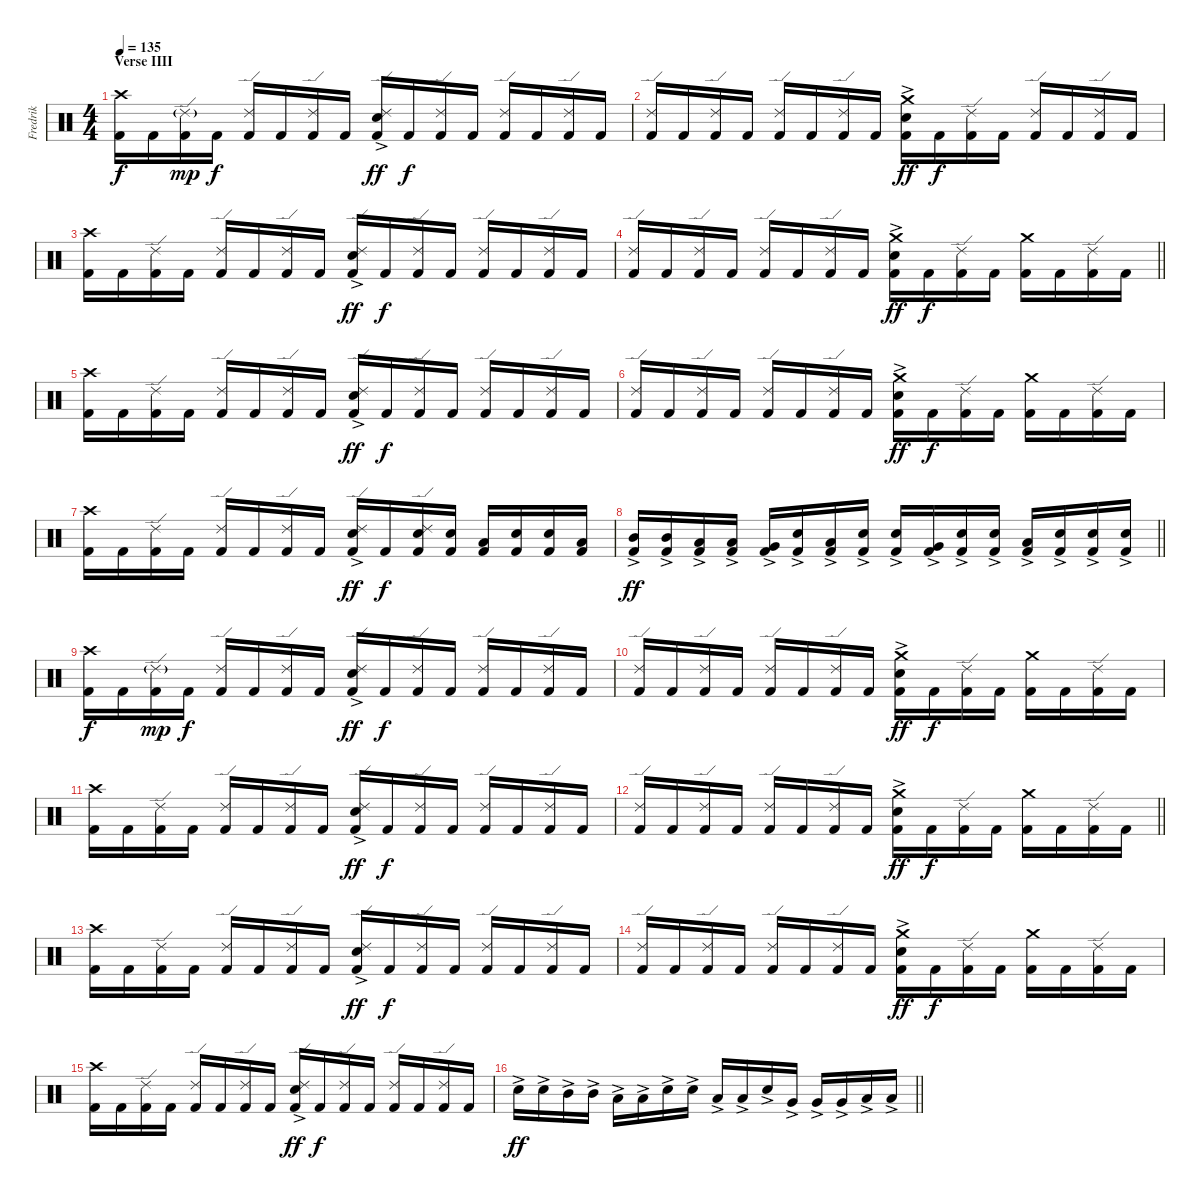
\track ("Fredrik" "Fredrik") {instrument percussion}
\staff {score}
\articulation defaults
\ts (4 4)
\section ("" "Verse IIII")
\tempo 135
\clef neutral
\ks c
("Kick (hit) 2" "Crash high (hit)").16{dy f} "Kick (hit) 2".16 ("Kick (hit) 2" "Ride (edge) 2"{g}).16{dy mp} "Kick (hit) 2".16{dy f} ("Kick (hit) 2" "Ride (edge) 2").16 "Kick (hit) 2".16 ("Kick (hit) 2" "Ride (edge) 2").16 "Kick (hit) 2".16 ("Kick (hit) 2" "Snare (hit) 2"{ac} "Ride (edge) 2").16{dy ff} "Kick (hit) 2".16{dy f} ("Kick (hit) 2" "Ride (edge) 2").16 "Kick (hit) 2".16 ("Kick (hit) 2" "Ride (edge) 2").16 "Kick (hit) 2".16 ("Kick (hit) 2" "Ride (edge) 2").16 "Kick (hit) 2".16 |
("Kick (hit) 2" "Ride (edge) 2").16 "Kick (hit) 2".16 ("Kick (hit) 2" "Ride (edge) 2").16 "Kick (hit) 2".16 ("Kick (hit) 2" "Ride (edge) 2").16 "Kick (hit) 2".16 ("Kick (hit) 2" "Ride (edge) 2").16 "Kick (hit) 2".16 ("Kick (hit) 2" "Snare (hit) 2"{ac} "Crash medium (hit)").16{dy ff} "Kick (hit) 2".16{dy f} ("Kick (hit) 2" "Ride (edge) 2").16 "Kick (hit) 2".16 ("Kick (hit) 2" "Ride (edge) 2").16 "Kick (hit) 2".16 ("Kick (hit) 2" "Ride (edge) 2").16 "Kick (hit) 2".16 |
("Kick (hit) 2" "Crash high (hit)").16 "Kick (hit) 2".16 ("Kick (hit) 2" "Ride (edge) 2").16 "Kick (hit) 2".16 ("Kick (hit) 2" "Ride (edge) 2").16 "Kick (hit) 2".16 ("Kick (hit) 2" "Ride (edge) 2").16 "Kick (hit) 2".16 ("Kick (hit) 2" "Snare (hit) 2"{ac} "Ride (edge) 2").16{dy ff} "Kick (hit) 2".16{dy f} ("Kick (hit) 2" "Ride (edge) 2").16 "Kick (hit) 2".16 ("Kick (hit) 2" "Ride (edge) 2").16 "Kick (hit) 2".16 ("Kick (hit) 2" "Ride (edge) 2").16 "Kick (hit) 2".16 |
\barLineRight lightlight
("Kick (hit) 2" "Ride (edge) 2").16 "Kick (hit) 2".16 ("Kick (hit) 2" "Ride (edge) 2").16 "Kick (hit) 2".16 ("Kick (hit) 2" "Ride (edge) 2").16 "Kick (hit) 2".16 ("Kick (hit) 2" "Ride (edge) 2").16 "Kick (hit) 2".16 ("Kick (hit) 2" "Snare (hit) 2"{ac} "Crash medium (hit)").16{dy ff} "Kick (hit) 2".16{dy f} ("Kick (hit) 2" "Ride (edge) 2").16 "Kick (hit) 2".16 ("Kick (hit) 2" "Crash medium (hit)").16 "Kick (hit) 2".16 ("Kick (hit) 2" "Ride (edge) 2").16 "Kick (hit) 2".16 |
\section ("" "")
("Kick (hit) 2" "Crash high (hit)").16 "Kick (hit) 2".16 ("Kick (hit) 2" "Ride (edge) 2").16 "Kick (hit) 2".16 ("Kick (hit) 2" "Ride (edge) 2").16 "Kick (hit) 2".16 ("Kick (hit) 2" "Ride (edge) 2").16 "Kick (hit) 2".16 ("Kick (hit) 2" "Snare (hit) 2"{ac} "Ride (edge) 2").16{dy ff} "Kick (hit) 2".16{dy f} ("Kick (hit) 2" "Ride (edge) 2").16 "Kick (hit) 2".16 ("Kick (hit) 2" "Ride (edge) 2").16 "Kick (hit) 2".16 ("Kick (hit) 2" "Ride (edge) 2").16 "Kick (hit) 2".16 |
("Kick (hit) 2" "Ride (edge) 2").16 "Kick (hit) 2".16 ("Kick (hit) 2" "Ride (edge) 2").16 "Kick (hit) 2".16 ("Kick (hit) 2" "Ride (edge) 2").16 "Kick (hit) 2".16 ("Kick (hit) 2" "Ride (edge) 2").16 "Kick (hit) 2".16 ("Kick (hit) 2" "Snare (hit) 2"{ac} "Crash medium (hit)").16{dy ff} "Kick (hit) 2".16{dy f} ("Kick (hit) 2" "Ride (edge) 2").16 "Kick (hit) 2".16 ("Kick (hit) 2" "Crash medium (hit)").16 "Kick (hit) 2".16 ("Kick (hit) 2" "Ride (edge) 2").16 "Kick (hit) 2".16 |
("Kick (hit) 2" "Crash high (hit)").16 "Kick (hit) 2".16 ("Kick (hit) 2" "Ride (edge) 2").16 "Kick (hit) 2".16 ("Kick (hit) 2" "Ride (edge) 2").16 "Kick (hit) 2".16 ("Kick (hit) 2" "Ride (edge) 2").16 "Kick (hit) 2".16 ("Kick (hit) 2" "Snare (hit) 2"{ac} "Ride (edge) 2").16{dy ff} "Kick (hit) 2".16{dy f} ("Kick (hit) 2" "Snare (hit) 2" "Ride (edge) 2").16 ("Kick (hit) 2" "Snare (hit) 2").16 ("Kick (hit) 2" "Low Tom (hit)").16 ("Kick (hit) 2" "Snare (hit) 2").16 ("Kick (hit) 2" "Snare (hit) 2").16 ("Kick (hit) 2" "Low Tom (hit)").16 |
\barLineRight lightlight
("Kick (hit) 2" "Mid Tom (hit)"{ac}).16{dy ff} ("Kick (hit) 2" "Mid Tom (hit)"{ac}).16 ("Kick (hit) 2" "Low Tom (hit)"{ac}).16 ("Kick (hit) 2" "Low Tom (hit)"{ac}).16 ("Kick (hit) 2" "Very Low Tom (hit)"{ac}).16 ("Kick (hit) 2" "Snare (hit) 2"{ac}).16 ("Kick (hit) 2" "Low Tom (hit)"{ac}).16 ("Kick (hit) 2" "Snare (hit) 2"{ac}).16 ("Kick (hit) 2" "Snare (hit) 2"{ac}).16 ("Kick (hit) 2" "Very Low Tom (hit)"{ac}).16 ("Kick (hit) 2" "Snare (hit) 2"{ac}).16 ("Kick (hit) 2" "Snare (hit) 2"{ac}).16 ("Kick (hit) 2" "Low Floor Tom (hit)"{ac}).16 ("Kick (hit) 2" "Snare (hit) 2"{ac}).16 ("Kick (hit) 2" "Snare (hit) 2"{ac}).16 ("Kick (hit) 2" "Snare (hit) 2"{ac}).16 |
\section ("" "")
("Kick (hit) 2" "Crash high (hit)").16{dy f} "Kick (hit) 2".16 ("Kick (hit) 2" "Ride (edge) 2"{g}).16{dy mp} "Kick (hit) 2".16{dy f} ("Kick (hit) 2" "Ride (edge) 2").16 "Kick (hit) 2".16 ("Kick (hit) 2" "Ride (edge) 2").16 "Kick (hit) 2".16 ("Kick (hit) 2" "Snare (hit) 2"{ac} "Ride (edge) 2").16{dy ff} "Kick (hit) 2".16{dy f} ("Kick (hit) 2" "Ride (edge) 2").16 "Kick (hit) 2".16 ("Kick (hit) 2" "Ride (edge) 2").16 "Kick (hit) 2".16 ("Kick (hit) 2" "Ride (edge) 2").16 "Kick (hit) 2".16 |
("Kick (hit) 2" "Ride (edge) 2").16 "Kick (hit) 2".16 ("Kick (hit) 2" "Ride (edge) 2").16 "Kick (hit) 2".16 ("Kick (hit) 2" "Ride (edge) 2").16 "Kick (hit) 2".16 ("Kick (hit) 2" "Ride (edge) 2").16 "Kick (hit) 2".16 ("Kick (hit) 2" "Snare (hit) 2"{ac} "Crash medium (hit)").16{dy ff} "Kick (hit) 2".16{dy f} ("Kick (hit) 2" "Ride (edge) 2").16 "Kick (hit) 2".16 ("Kick (hit) 2" "Crash medium (hit)").16 "Kick (hit) 2".16 ("Kick (hit) 2" "Ride (edge) 2").16 "Kick (hit) 2".16 |
("Kick (hit) 2" "Crash high (hit)").16 "Kick (hit) 2".16 ("Kick (hit) 2" "Ride (edge) 2").16 "Kick (hit) 2".16 ("Kick (hit) 2" "Ride (edge) 2").16 "Kick (hit) 2".16 ("Kick (hit) 2" "Ride (edge) 2").16 "Kick (hit) 2".16 ("Kick (hit) 2" "Snare (hit) 2"{ac} "Ride (edge) 2").16{dy ff} "Kick (hit) 2".16{dy f} ("Kick (hit) 2" "Ride (edge) 2").16 "Kick (hit) 2".16 ("Kick (hit) 2" "Ride (edge) 2").16 "Kick (hit) 2".16 ("Kick (hit) 2" "Ride (edge) 2").16 "Kick (hit) 2".16 |
\barLineRight lightlight
("Kick (hit) 2" "Ride (edge) 2").16 "Kick (hit) 2".16 ("Kick (hit) 2" "Ride (edge) 2").16 "Kick (hit) 2".16 ("Kick (hit) 2" "Ride (edge) 2").16 "Kick (hit) 2".16 ("Kick (hit) 2" "Ride (edge) 2").16 "Kick (hit) 2".16 ("Kick (hit) 2" "Snare (hit) 2"{ac} "Crash medium (hit)").16{dy ff} "Kick (hit) 2".16{dy f} ("Kick (hit) 2" "Ride (edge) 2").16 "Kick (hit) 2".16 ("Kick (hit) 2" "Crash medium (hit)").16 "Kick (hit) 2".16 ("Kick (hit) 2" "Ride (edge) 2").16 "Kick (hit) 2".16 |
\section ("" "")
("Kick (hit) 2" "Crash high (hit)").16 "Kick (hit) 2".16 ("Kick (hit) 2" "Ride (edge) 2").16 "Kick (hit) 2".16 ("Kick (hit) 2" "Ride (edge) 2").16 "Kick (hit) 2".16 ("Kick (hit) 2" "Ride (edge) 2").16 "Kick (hit) 2".16 ("Kick (hit) 2" "Snare (hit) 2"{ac} "Ride (edge) 2").16{dy ff} "Kick (hit) 2".16{dy f} ("Kick (hit) 2" "Ride (edge) 2").16 "Kick (hit) 2".16 ("Kick (hit) 2" "Ride (edge) 2").16 "Kick (hit) 2".16 ("Kick (hit) 2" "Ride (edge) 2").16 "Kick (hit) 2".16 |
("Kick (hit) 2" "Ride (edge) 2").16 "Kick (hit) 2".16 ("Kick (hit) 2" "Ride (edge) 2").16 "Kick (hit) 2".16 ("Kick (hit) 2" "Ride (edge) 2").16 "Kick (hit) 2".16 ("Kick (hit) 2" "Ride (edge) 2").16 "Kick (hit) 2".16 ("Kick (hit) 2" "Snare (hit) 2"{ac} "Crash medium (hit)").16{dy ff} "Kick (hit) 2".16{dy f} ("Kick (hit) 2" "Ride (edge) 2").16 "Kick (hit) 2".16 ("Kick (hit) 2" "Crash medium (hit)").16 "Kick (hit) 2".16 ("Kick (hit) 2" "Ride (edge) 2").16 "Kick (hit) 2".16 |
("Kick (hit) 2" "Crash high (hit)").16 "Kick (hit) 2".16 ("Kick (hit) 2" "Ride (edge) 2").16 "Kick (hit) 2".16 ("Kick (hit) 2" "Ride (edge) 2").16 "Kick (hit) 2".16 ("Kick (hit) 2" "Ride (edge) 2").16 "Kick (hit) 2".16 ("Kick (hit) 2" "Snare (hit) 2"{ac} "Ride (edge) 2").16{dy ff} "Kick (hit) 2".16{dy f} ("Kick (hit) 2" "Ride (edge) 2").16 "Kick (hit) 2".16 ("Kick (hit) 2" "Ride (edge) 2").16 "Kick (hit) 2".16 ("Kick (hit) 2" "Ride (edge) 2").16 "Kick (hit) 2".16 |
\barLineRight lightlight "Snare (hit) 2"{ac}.16{dy ff} "Snare (hit) 2"{ac}.16 "Mid Tom (hit)"{ac}.16 "Mid Tom (hit)"{ac}.16 "Low Tom (hit)"{ac}.16 "Low Tom (hit)"{ac}.16 "Snare (hit) 2"{ac}.16 "Snare (hit) 2"{ac}.16 "Low Tom (hit)"{ac}.16 "Low Tom (hit)"{ac}.16 "Snare (hit) 2"{ac}.16 "Very Low Tom (hit)"{ac}.16 "Very Low Tom (hit)"{ac}.16 "Very Low Tom (hit)"{ac}.16 "Low Floor Tom (hit)"{ac}.16 "Low Floor Tom (hit)"{ac}.16
